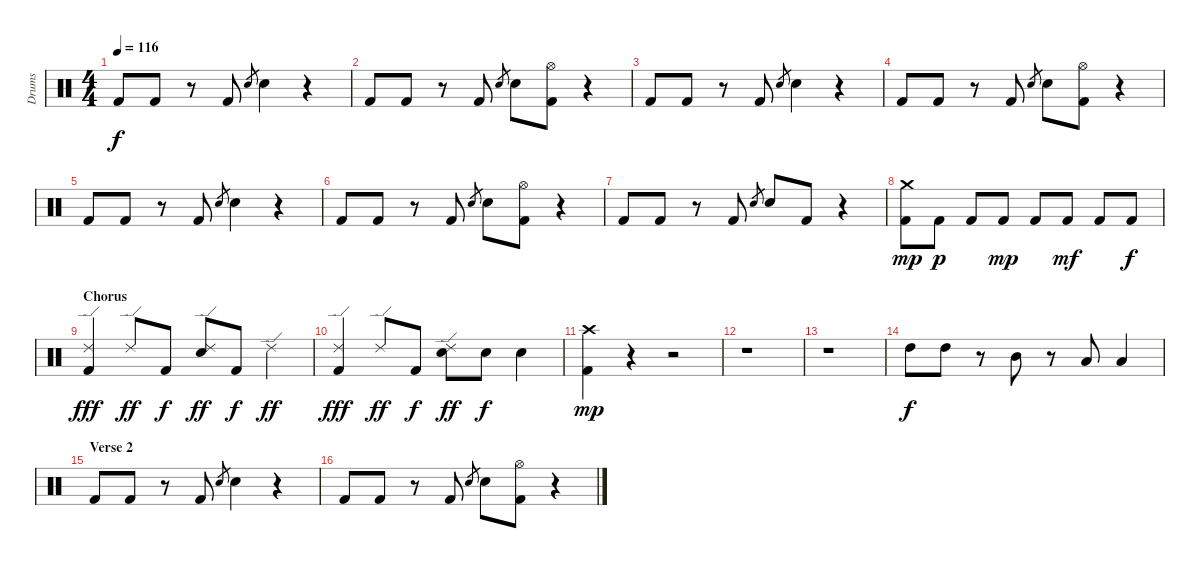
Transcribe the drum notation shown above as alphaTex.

\track ("Drums" "Drums") {instrument percussion}
\staff {score}
\articulation defaults
\ts (4 4)
\tempo 116
\clef neutral
\ks c "Kick (hit) 2".8{dy f} "Kick (hit) 2".8
r.8 "Kick (hit) 2".8 "Snare (hit) 2".8{gr} "Snare (hit) 2".4 r.4 |
"Kick (hit) 2".8 "Kick (hit) 2".8 r.8 "Kick (hit) 2".8 "Snare (hit) 2".8{gr} "Snare (hit) 2".8 ("Hi-Hat (open)" "Kick (hit) 2").8 r.4 |
"Kick (hit) 2".8 "Kick (hit) 2".8 r.8 "Kick (hit) 2".8 "Snare (hit) 2".8{gr} "Snare (hit) 2".4 r.4 |
"Kick (hit) 2".8 "Kick (hit) 2".8 r.8 "Kick (hit) 2".8 "Snare (hit) 2".8{gr} "Snare (hit) 2".8 ("Hi-Hat (open)" "Kick (hit) 2").8 r.4 |
"Kick (hit) 2".8 "Kick (hit) 2".8 r.8 "Kick (hit) 2".8 "Snare (hit) 2".8{gr} "Snare (hit) 2".4 r.4 |
"Kick (hit) 2".8 "Kick (hit) 2".8 r.8 "Kick (hit) 2".8 "Snare (hit) 2".8{gr} "Snare (hit) 2".8 ("Hi-Hat (open)" "Kick (hit) 2").8 r.4 |
"Kick (hit) 2".8 "Kick (hit) 2".8 r.8 "Kick (hit) 2".8 "Snare (hit) 2".8{gr} "Snare (hit) 2".8 "Kick (hit) 2".8 r.4 |
("Crash medium (hit)" "Kick (hit) 2").8{dy mp} "Kick (hit) 2".8{dy p} "Kick (hit) 2".8 "Kick (hit) 2".8{dy mp} "Kick (hit) 2".8 "Kick (hit) 2".8{dy mf} "Kick (hit) 2".8 "Kick (hit) 2".8{dy f} |
\section ("" "Chorus")
("Ride (edge) 2" "Kick (hit) 2").4{dy fff} "Ride (edge) 2".8{dy ff} "Kick (hit) 2".8{dy f} ("Ride (edge) 2" "Snare (hit) 2").8{dy ff} "Kick (hit) 2".8{dy f} "Ride (edge) 2".4{dy ff} |
("Ride (edge) 2" "Kick (hit) 2").4{dy fff} "Ride (edge) 2".8{dy ff} "Kick (hit) 2".8{dy f} ("Ride (edge) 2" "Snare (hit) 2").8{dy ff} "Snare (hit) 2".8{dy f} "Snare (hit) 2".4 |
("Crash high (hit)" "Kick (hit) 2").4{dy mp} r.4 r.2 |
r.1 |
r.1 |
"High Tom (hit)".8{dy f} "High Tom (hit)".8 r.8 "Mid Tom (hit)".8 r.8 "Low Tom (hit)".8 "Low Tom (hit)".4 |
\section ("" "Verse 2")
"Kick (hit) 2".8 "Kick (hit) 2".8 r.8 "Kick (hit) 2".8 "Snare (hit) 2".8{gr} "Snare (hit) 2".4 r.4 |
"Kick (hit) 2".8 "Kick (hit) 2".8 r.8 "Kick (hit) 2".8 "Snare (hit) 2".8{gr} "Snare (hit) 2".8 ("Hi-Hat (open)" "Kick (hit) 2").8 r.4
